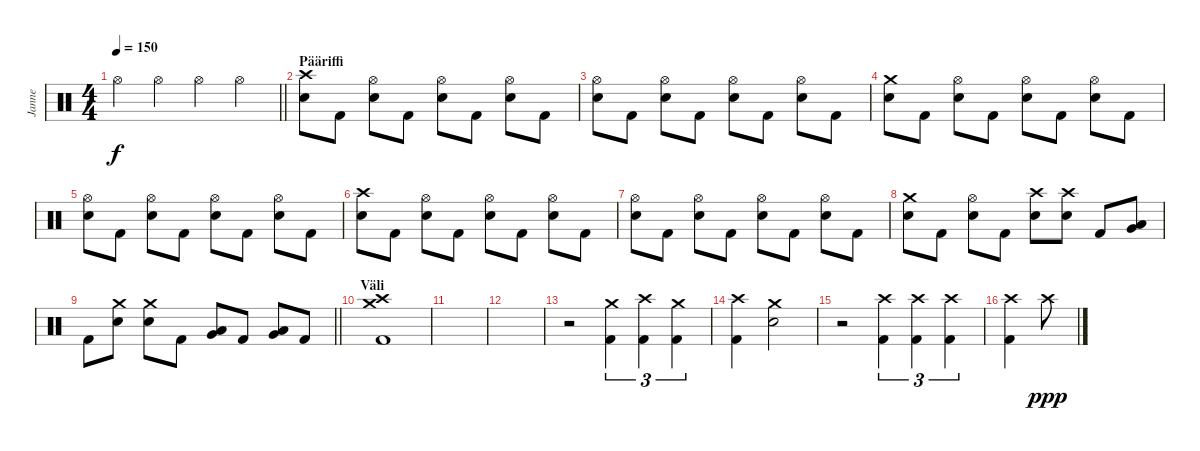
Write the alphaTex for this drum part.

\track ("Janne" "Janne") {instrument percussion}
\staff {score}
\articulation defaults
\ts (4 4)
\tempo 150
\clef neutral
\barLineRight lightlight
\ks c "Hi-Hat (open)".4{dy f} "Hi-Hat (open)".4 "Hi-Hat (open)".4 "Hi-Hat (open)".4
|
\section ("" "Pääriffi")
("Crash high (hit)" "Electric Snare (hit)").8 "Kick (hit) 2".8 ("Hi-Hat (open)" "Electric Snare (hit)").8 "Kick (hit) 2".8 ("Hi-Hat (open)" "Electric Snare (hit)").8 "Kick (hit) 2".8 ("Hi-Hat (open)" "Electric Snare (hit)").8 "Kick (hit) 2".8 |
("Hi-Hat (open)" "Electric Snare (hit)").8 "Kick (hit) 2".8 ("Hi-Hat (open)" "Electric Snare (hit)").8 "Kick (hit) 2".8 ("Hi-Hat (open)" "Electric Snare (hit)").8 "Kick (hit) 2".8 ("Hi-Hat (open)" "Electric Snare (hit)").8 "Kick (hit) 2".8 |
("Crash medium (hit)" "Electric Snare (hit)").8 "Kick (hit) 2".8 ("Hi-Hat (open)" "Electric Snare (hit)").8 "Kick (hit) 2".8 ("Hi-Hat (open)" "Electric Snare (hit)").8 "Kick (hit) 2".8 ("Hi-Hat (open)" "Electric Snare (hit)").8 "Kick (hit) 2".8 |
("Hi-Hat (open)" "Electric Snare (hit)").8 "Kick (hit) 2".8 ("Hi-Hat (open)" "Electric Snare (hit)").8 "Kick (hit) 2".8 ("Hi-Hat (open)" "Electric Snare (hit)").8 "Kick (hit) 2".8 ("Hi-Hat (open)" "Electric Snare (hit)").8 "Kick (hit) 2".8 |
("Crash high (hit)" "Electric Snare (hit)").8 "Kick (hit) 2".8 ("Hi-Hat (open)" "Electric Snare (hit)").8 "Kick (hit) 2".8 ("Hi-Hat (open)" "Electric Snare (hit)").8 "Kick (hit) 2".8 ("Hi-Hat (open)" "Electric Snare (hit)").8 "Kick (hit) 2".8 |
("Hi-Hat (open)" "Electric Snare (hit)").8 "Kick (hit) 2".8 ("Hi-Hat (open)" "Electric Snare (hit)").8 "Kick (hit) 2".8 ("Hi-Hat (open)" "Electric Snare (hit)").8 "Kick (hit) 2".8 ("Hi-Hat (open)" "Electric Snare (hit)").8 "Kick (hit) 2".8 |
("Crash medium (hit)" "Electric Snare (hit)").8 "Kick (hit) 2".8 ("Hi-Hat (open)" "Electric Snare (hit)").8 "Kick (hit) 2".8 ("Crash high (hit)" "Electric Snare (hit)").8 ("Crash high (hit)" "Electric Snare (hit)").8 "Kick (hit) 2".8 ("Low Tom (hit)" "Very Low Tom (hit)").8 |
\barLineRight lightlight "Kick (hit) 2".8
("Crash medium (hit)" "Electric Snare (hit)").8 ("Crash medium (hit)" "Electric Snare (hit)").8 "Kick (hit) 2".8 ("Low Tom (hit)" "Very Low Tom (hit)").8 "Kick (hit) 2".8 ("Very Low Tom (hit)" "Low Floor Tom (hit)").8 "Kick (hit) 2".8 |
\section ("" "Väli")
("Crash high (hit)" "Crash medium (hit)" "Kick (hit) 2").1 |
|
|
r.2 ("Crash medium (hit)" "Kick (hit) 2").4{tu (3 2)} ("Crash high (hit)" "Kick (hit) 2").4{tu (3 2)} ("Crash medium (hit)" "Kick (hit) 2").4{tu (3 2)} |
("Crash high (hit)" "Kick (hit) 2").4 ("Crash medium (hit)" "Electric Snare (hit)").2 |
r.2 ("Crash high (hit)" "Kick (hit) 2").4{tu (3 2)} ("Crash high (hit)" "Kick (hit) 2").4{tu (3 2)} ("Crash high (hit)" "Kick (hit) 2").4{tu (3 2)} |
("Crash high (hit)" "Kick (hit) 2").4 "Crash high (hit)".8{dy ppp}
